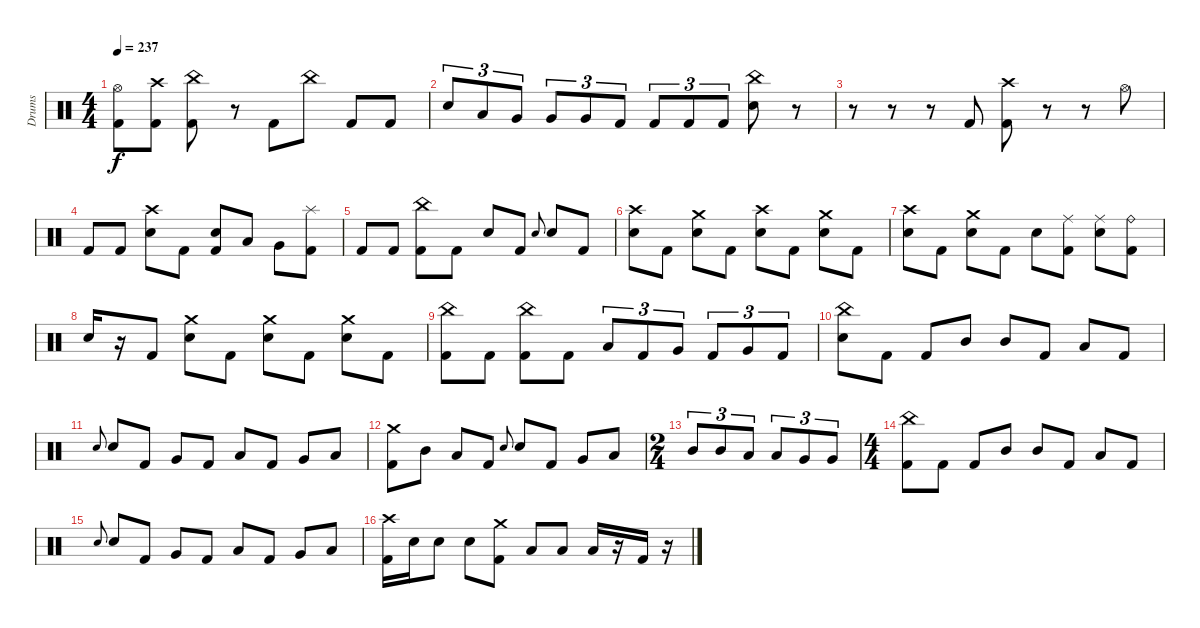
\track ("Drums" "Drums") {instrument percussion}
\staff {score}
\articulation defaults
\ts (4 4)
\tempo 237
\clef neutral
\ks c
("Hi-Hat (open)" "Kick (hit) 2").8{dy f} ("Crash high (hit)" "Kick (hit) 2").8 ("China (hit)" "Kick (hit) 2").8 r.8 "Kick (hit) 2".8 "China (hit)".8 "Kick (hit) 2".8 "Kick (hit) 2".8 |
"Electric Snare (hit)".8{tu (3 2)} "Low Tom (hit)".8{tu (3 2)} "Very Low Tom (hit)".8{tu (3 2)} "Very Low Tom (hit)".8{tu (3 2)} "Very Low Tom (hit)".8{tu (3 2)} "Kick (hit) 2".8{tu (3 2)} "Kick (hit) 2".8{tu (3 2)} "Kick (hit) 2".8{tu (3 2)} "Kick (hit) 2".8{tu (3 2)} ("China (hit)" "Electric Snare (hit)").8 r.8 |
r.8 r.8 r.8 "Kick (hit) 2".8 ("Crash high (hit)" "Kick (hit) 2").8 r.8 r.8 "Hi-Hat (open)".8 |
"Kick (hit) 2".8 "Kick (hit) 2".8 ("Crash high (hit)" "Electric Snare (hit)").8 "Kick (hit) 2".8 ("Electric Snare (hit)" "Kick (hit) 2").8 "Low Tom (hit)".8 "Very Low Tom (hit)".8 ("Splash (hit)" "Kick (hit) 2").8 |
"Kick (hit) 2".8 "Kick (hit) 2".8 ("China (hit)" "Kick (hit) 2").8 "Kick (hit) 2".8 "Electric Snare (hit)".8 "Kick (hit) 2".8 "Electric Snare (hit)".8{gr onbeat} "Electric Snare (hit)".8 "Kick (hit) 2".8 |
("Crash high (hit)" "Electric Snare (hit)").8 "Kick (hit) 2".8 ("Crash medium (hit)" "Electric Snare (hit)").8 "Kick (hit) 2".8 ("Crash high (hit)" "Electric Snare (hit)").8 "Kick (hit) 2".8 ("Crash medium (hit)" "Electric Snare (hit)").8 "Kick (hit) 2".8 |
("Crash high (hit)" "Electric Snare (hit)").8 "Kick (hit) 2".8 ("Crash medium (hit)" "Electric Snare (hit)").8 "Kick (hit) 2".8 "Electric Snare (hit)".8 ("Ride (middle)" "Kick (hit) 2").8 ("Ride (middle)" "Electric Snare (hit)").8 ("Ride (bell)" "Kick (hit) 2").8 |
"Electric Snare (hit)".16 r.16 "Kick (hit) 2".8 ("Crash medium (hit)" "Electric Snare (hit)").8 "Kick (hit) 2".8 ("Crash medium (hit)" "Electric Snare (hit)").8 "Kick (hit) 2".8 ("Crash medium (hit)" "Electric Snare (hit)").8 "Kick (hit) 2".8 |
("China (hit)" "Kick (hit) 2").8 "Kick (hit) 2".8 ("China (hit)" "Kick (hit) 2").8 "Kick (hit) 2".8 "Low Tom (hit)".8{tu (3 2)} "Kick (hit) 2".8{tu (3 2)} "Very Low Tom (hit)".8{tu (3 2)} "Kick (hit) 2".8{tu (3 2)} "Very Low Tom (hit)".8{tu (3 2)} "Kick (hit) 2".8{tu (3 2)} |
("China (hit)" "Electric Snare (hit)").8 "Kick (hit) 2".8 "Kick (hit) 2".8 "Mid Tom (hit)".8 "Mid Tom (hit)".8 "Kick (hit) 2".8 "Low Tom (hit)".8 "Kick (hit) 2".8 |
"Electric Snare (hit)".8{gr onbeat} "Electric Snare (hit)".8 "Kick (hit) 2".8 "Very Low Tom (hit)".8 "Kick (hit) 2".8 "Low Tom (hit)".8 "Kick (hit) 2".8 "Very Low Tom (hit)".8 "Low Tom (hit)".8 |
("Crash medium (hit)" "Kick (hit) 2").8 "Mid Tom (hit)".8 "Low Tom (hit)".8 "Kick (hit) 2".8 "Electric Snare (hit)".8{gr onbeat} "Electric Snare (hit)".8 "Kick (hit) 2".8 "Very Low Tom (hit)".8 "Low Floor Tom (hit)".8 |
\ts (2 4)
"Mid Tom (hit)".8{tu (3 2)} "Mid Tom (hit)".8{tu (3 2)} "Low Tom (hit)".8{tu (3 2)} "Low Tom (hit)".8{tu (3 2)} "Very Low Tom (hit)".8{tu (3 2)} "Very Low Tom (hit)".8{tu (3 2)} |
\ts (4 4)
("China (hit)" "Kick (hit) 2").8 "Kick (hit) 2".8 "Kick (hit) 2".8 "Mid Tom (hit)".8 "Mid Tom (hit)".8 "Kick (hit) 2".8 "Low Tom (hit)".8 "Kick (hit) 2".8 |
"Electric Snare (hit)".8{gr onbeat} "Electric Snare (hit)".8 "Kick (hit) 2".8 "Very Low Tom (hit)".8 "Kick (hit) 2".8 "Low Tom (hit)".8 "Kick (hit) 2".8 "Very Low Tom (hit)".8 "Low Tom (hit)".8 |
("Crash high (hit)" "Kick (hit) 2").16 "Electric Snare (hit)".16 "Electric Snare (hit)".8 "Electric Snare (hit)".8 ("Crash medium (hit)" "Kick (hit) 2").8 "Low Tom (hit)".8 "Low Floor Tom (hit)".8 "Low Floor Tom (hit)".16 r.16 "Kick (hit) 2".16 r.16
